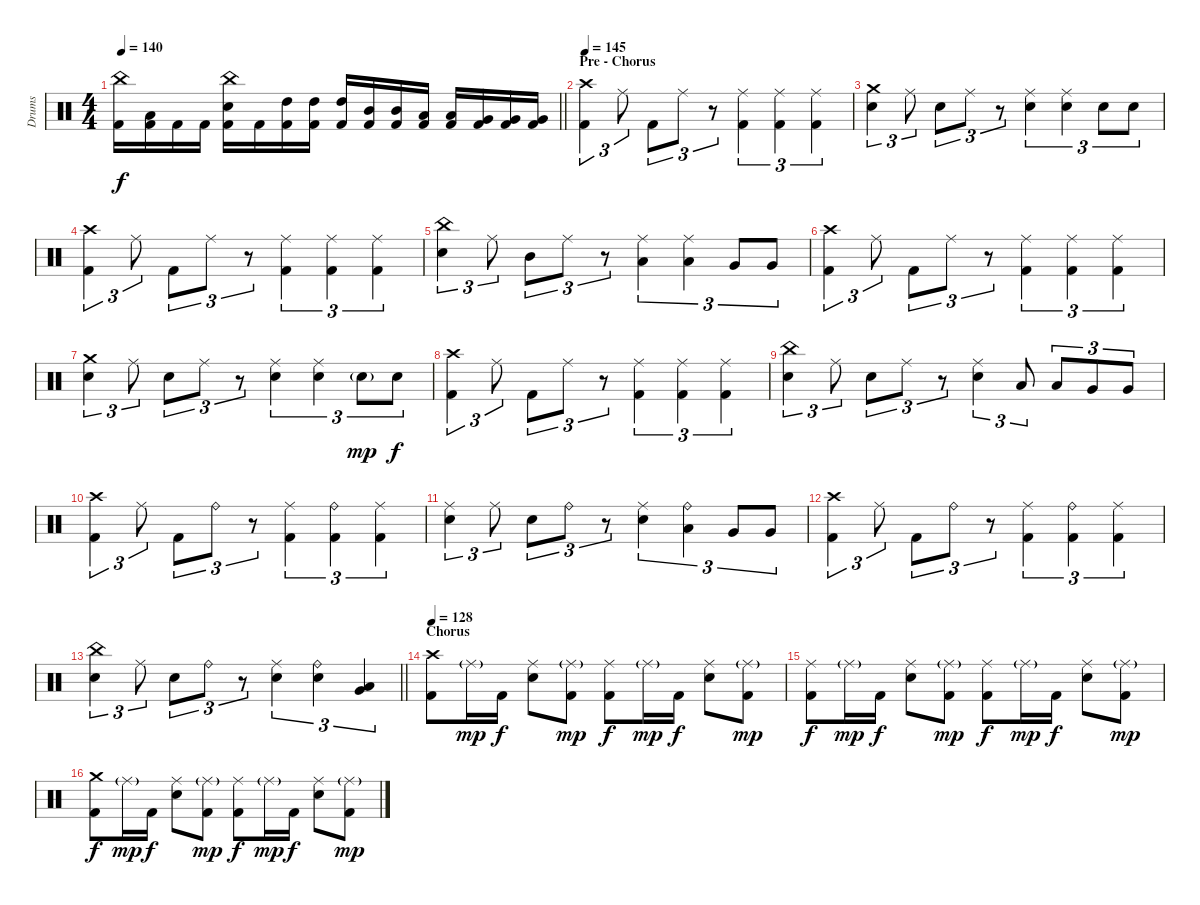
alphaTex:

\track ("Drums" "Drums") {instrument percussion}
\staff {score}
\articulation defaults
\ts (4 4)
\tempo 140
\clef neutral
\barLineRight lightlight
\ks c
("China (hit)" "Kick (hit) 2").16{dy f} ("Low Tom (hit)" "Kick (hit) 2").16 "Kick (hit) 2".16 "Kick (hit) 2".16 ("China (hit)" "Electric Snare (hit)" "Kick (hit) 2").16 "Kick (hit) 2".16 ("High Tom (hit)" "Kick (hit) 2").16 ("High Tom (hit)" "Kick (hit) 2").16 ("High Tom (hit)" "Kick (hit) 2").16 ("Mid Tom (hit)" "Kick (hit) 2").16 ("Mid Tom (hit)" "Kick (hit) 2").16 ("Low Tom (hit)" "Kick (hit) 2").16 ("Low Tom (hit)" "Kick (hit) 2").16 ("Very Low Tom (hit)" "Kick (hit) 2").16 ("Very Low Tom (hit)" "Kick (hit) 2").16 ("Very Low Tom (hit)" "Kick (hit) 2").16 |
\section ("" "Pre - Chorus")
\tempo 145
("Crash high (hit)" "Kick (hit) 2").4{tu (3 2)} "Ride (middle)".8{tu (3 2)} "Kick (hit) 2".8{tu (3 2)} "Ride (middle)".8{tu (3 2)} r.8{tu (3 2)} ("Ride (middle)" "Kick (hit) 2").4{tu (3 2)} ("Ride (middle)" "Kick (hit) 2").4{tu (3 2)} ("Ride (middle)" "Kick (hit) 2").4{tu (3 2)} |
("Crash medium (hit)" "Electric Snare (hit)").4{tu (3 2)} "Ride (middle)".8{tu (3 2)} "Electric Snare (hit)".8{tu (3 2)} "Ride (middle)".8{tu (3 2)} r.8{tu (3 2)} ("Ride (middle)" "Electric Snare (hit)").4{tu (3 2)} ("Ride (middle)" "Electric Snare (hit)").4{tu (3 2)} "Electric Snare (hit)".8{tu (3 2)} "Electric Snare (hit)".8{tu (3 2)} |
("Crash high (hit)" "Kick (hit) 2").4{tu (3 2)} "Ride (middle)".8{tu (3 2)} "Kick (hit) 2".8{tu (3 2)} "Ride (middle)".8{tu (3 2)} r.8{tu (3 2)} ("Ride (middle)" "Kick (hit) 2").4{tu (3 2)} ("Ride (middle)" "Kick (hit) 2").4{tu (3 2)} ("Ride (middle)" "Kick (hit) 2").4{tu (3 2)} |
("China (hit)" "Electric Snare (hit)").4{tu (3 2)} "Ride (middle)".8{tu (3 2)} "Mid Tom (hit)".8{tu (3 2)} "Ride (middle)".8{tu (3 2)} r.8{tu (3 2)} ("Ride (middle)" "Low Tom (hit)").4{tu (3 2)} ("Ride (middle)" "Low Tom (hit)").4{tu (3 2)} "Very Low Tom (hit)".8{tu (3 2)} "Very Low Tom (hit)".8{tu (3 2)} |
("Crash high (hit)" "Kick (hit) 2").4{tu (3 2)} "Ride (middle)".8{tu (3 2)} "Kick (hit) 2".8{tu (3 2)} "Ride (middle)".8{tu (3 2)} r.8{tu (3 2)} ("Ride (middle)" "Kick (hit) 2").4{tu (3 2)} ("Ride (middle)" "Kick (hit) 2").4{tu (3 2)} ("Ride (middle)" "Kick (hit) 2").4{tu (3 2)} |
("Crash medium (hit)" "Electric Snare (hit)").4{tu (3 2)} "Ride (middle)".8{tu (3 2)} "Electric Snare (hit)".8{tu (3 2)} "Ride (middle)".8{tu (3 2)} r.8{tu (3 2)} ("Ride (middle)" "Electric Snare (hit)").4{tu (3 2)} ("Ride (middle)" "Electric Snare (hit)").4{tu (3 2)} "Electric Snare (hit)"{g}.8{tu (3 2) dy mp} "Electric Snare (hit)".8{tu (3 2) dy f} |
("Crash high (hit)" "Kick (hit) 2").4{tu (3 2)} "Ride (middle)".8{tu (3 2)} "Kick (hit) 2".8{tu (3 2)} "Ride (middle)".8{tu (3 2)} r.8{tu (3 2)} ("Ride (middle)" "Kick (hit) 2").4{tu (3 2)} ("Ride (middle)" "Kick (hit) 2").4{tu (3 2)} ("Ride (middle)" "Kick (hit) 2").4{tu (3 2)} |
("China (hit)" "Electric Snare (hit)").4{tu (3 2)} "Ride (middle)".8{tu (3 2)} "Electric Snare (hit)".8{tu (3 2)} "Ride (middle)".8{tu (3 2)} r.8{tu (3 2)} ("Ride (middle)" "Electric Snare (hit)").4{tu (3 2)} "Low Tom (hit)".8{tu (3 2)} "Low Tom (hit)".8{tu (3 2)} "Very Low Tom (hit)".8{tu (3 2)} "Very Low Tom (hit)".8{tu (3 2)} |
("Crash high (hit)" "Kick (hit) 2").4{tu (3 2)} "Ride (middle)".8{tu (3 2)} "Kick (hit) 2".8{tu (3 2)} "Ride (bell)".8{tu (3 2)} r.8{tu (3 2)} ("Ride (middle)" "Kick (hit) 2").4{tu (3 2)} ("Ride (bell)" "Kick (hit) 2").4{tu (3 2)} ("Ride (middle)" "Kick (hit) 2").4{tu (3 2)} |
("Ride (middle)" "Electric Snare (hit)").4{tu (3 2)} "Ride (middle)".8{tu (3 2)} "Electric Snare (hit)".8{tu (3 2)} "Ride (bell)".8{tu (3 2)} r.8{tu (3 2)} ("Ride (middle)" "Electric Snare (hit)").4{tu (3 2)} ("Ride (bell)" "Low Tom (hit)").4{tu (3 2)} "Very Low Tom (hit)".8{tu (3 2)} "Very Low Tom (hit)".8{tu (3 2)} |
("Crash high (hit)" "Kick (hit) 2").4{tu (3 2)} "Ride (middle)".8{tu (3 2)} "Kick (hit) 2".8{tu (3 2)} "Ride (bell)".8{tu (3 2)} r.8{tu (3 2)} ("Ride (middle)" "Kick (hit) 2").4{tu (3 2)} ("Ride (bell)" "Kick (hit) 2").4{tu (3 2)} ("Ride (middle)" "Kick (hit) 2").4{tu (3 2)} |
\barLineRight lightlight
("China (hit)" "Electric Snare (hit)").4{tu (3 2)} "Ride (middle)".8{tu (3 2)} "Electric Snare (hit)".8{tu (3 2)} "Ride (bell)".8{tu (3 2)} r.8{tu (3 2)} ("Ride (middle)" "Electric Snare (hit)").4{tu (3 2)} ("Ride (bell)" "Electric Snare (hit)").4{tu (3 2)} ("Very Low Tom (hit)" "Low Floor Tom (hit)").4{tu (3 2)} |
\section ("" "Chorus")
\tempo 128
("Crash high (hit)" "Kick (hit) 2").8 "Ride (middle)"{g}.16{dy mp} "Kick (hit) 2".16{dy f} ("Ride (middle)" "Electric Snare (hit)").8 ("Ride (middle)"{g} "Kick (hit) 2").8{dy mp} ("Ride (middle)" "Kick (hit) 2").8{dy f} "Ride (middle)"{g}.16{dy mp} "Kick (hit) 2".16{dy f} ("Ride (middle)" "Electric Snare (hit)").8 ("Ride (middle)"{g} "Kick (hit) 2").8{dy mp} |
("Ride (middle)" "Kick (hit) 2").8{dy f} "Ride (middle)"{g}.16{dy mp} "Kick (hit) 2".16{dy f} ("Ride (middle)" "Electric Snare (hit)").8 ("Ride (middle)"{g} "Kick (hit) 2").8{dy mp} ("Ride (middle)" "Kick (hit) 2").8{dy f} "Ride (middle)"{g}.16{dy mp} "Kick (hit) 2".16{dy f} ("Ride (middle)" "Electric Snare (hit)").8 ("Ride (middle)"{g} "Kick (hit) 2").8{dy mp} |
("Crash medium (hit)" "Kick (hit) 2").8{dy f} "Ride (middle)"{g}.16{dy mp} "Kick (hit) 2".16{dy f} ("Ride (middle)" "Electric Snare (hit)").8 ("Ride (middle)"{g} "Kick (hit) 2").8{dy mp} ("Ride (middle)" "Kick (hit) 2").8{dy f} "Ride (middle)"{g}.16{dy mp} "Kick (hit) 2".16{dy f} ("Ride (middle)" "Electric Snare (hit)").8 ("Ride (middle)"{g} "Kick (hit) 2").8{dy mp}
